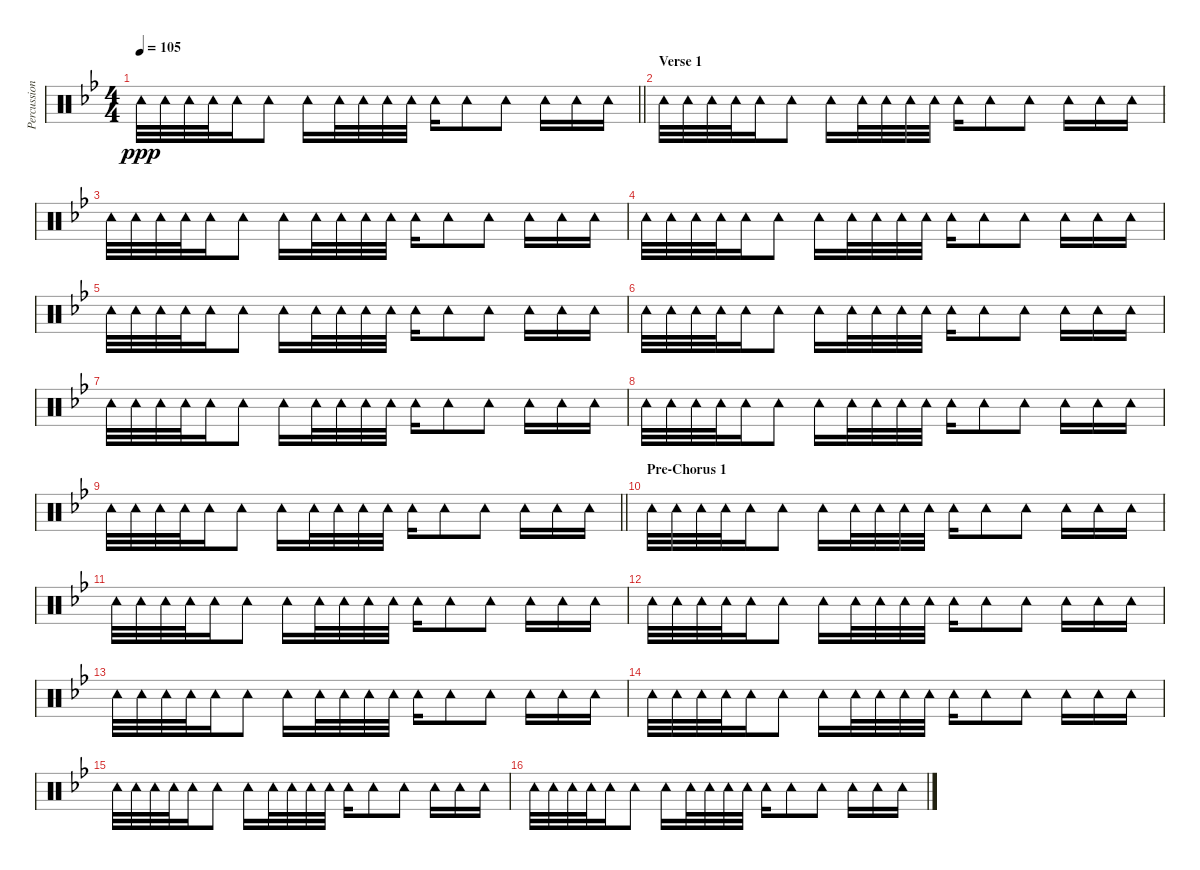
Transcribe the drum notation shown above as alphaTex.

\track ("Percussion" "Percussion") {instrument percussion}
\staff {score}
\articulation defaults
\ts (4 4)
\tempo 105
\clef neutral
\barLineRight lightlight
\ks bb "Tambourine (hit)".32{dy ppp} "Tambourine (hit)".32 "Tambourine (hit)".32 "Tambourine (hit)".32 "Tambourine (hit)".16 "Tambourine (hit)".8 "Tambourine (hit)".16 "Tambourine (hit)".32 "Tambourine (hit)".32 "Tambourine (hit)".32 "Tambourine (hit)".32 "Tambourine (hit)".16 "Tambourine (hit)".8 "Tambourine (hit)".8 "Tambourine (hit)".16 "Tambourine (hit)".16 "Tambourine (hit)".16
|
\section ("" "Verse 1")
"Tambourine (hit)".32 "Tambourine (hit)".32 "Tambourine (hit)".32 "Tambourine (hit)".32 "Tambourine (hit)".16 "Tambourine (hit)".8 "Tambourine (hit)".16 "Tambourine (hit)".32 "Tambourine (hit)".32 "Tambourine (hit)".32 "Tambourine (hit)".32 "Tambourine (hit)".16 "Tambourine (hit)".8 "Tambourine (hit)".8 "Tambourine (hit)".16 "Tambourine (hit)".16 "Tambourine (hit)".16 |
"Tambourine (hit)".32 "Tambourine (hit)".32 "Tambourine (hit)".32 "Tambourine (hit)".32 "Tambourine (hit)".16 "Tambourine (hit)".8 "Tambourine (hit)".16 "Tambourine (hit)".32 "Tambourine (hit)".32 "Tambourine (hit)".32 "Tambourine (hit)".32 "Tambourine (hit)".16 "Tambourine (hit)".8 "Tambourine (hit)".8 "Tambourine (hit)".16 "Tambourine (hit)".16 "Tambourine (hit)".16 |
"Tambourine (hit)".32 "Tambourine (hit)".32 "Tambourine (hit)".32 "Tambourine (hit)".32 "Tambourine (hit)".16 "Tambourine (hit)".8 "Tambourine (hit)".16 "Tambourine (hit)".32 "Tambourine (hit)".32 "Tambourine (hit)".32 "Tambourine (hit)".32 "Tambourine (hit)".16 "Tambourine (hit)".8 "Tambourine (hit)".8 "Tambourine (hit)".16 "Tambourine (hit)".16 "Tambourine (hit)".16 |
"Tambourine (hit)".32 "Tambourine (hit)".32 "Tambourine (hit)".32 "Tambourine (hit)".32 "Tambourine (hit)".16 "Tambourine (hit)".8 "Tambourine (hit)".16 "Tambourine (hit)".32 "Tambourine (hit)".32 "Tambourine (hit)".32 "Tambourine (hit)".32 "Tambourine (hit)".16 "Tambourine (hit)".8 "Tambourine (hit)".8 "Tambourine (hit)".16 "Tambourine (hit)".16 "Tambourine (hit)".16 |
"Tambourine (hit)".32 "Tambourine (hit)".32 "Tambourine (hit)".32 "Tambourine (hit)".32 "Tambourine (hit)".16 "Tambourine (hit)".8 "Tambourine (hit)".16 "Tambourine (hit)".32 "Tambourine (hit)".32 "Tambourine (hit)".32 "Tambourine (hit)".32 "Tambourine (hit)".16 "Tambourine (hit)".8 "Tambourine (hit)".8 "Tambourine (hit)".16 "Tambourine (hit)".16 "Tambourine (hit)".16 |
"Tambourine (hit)".32 "Tambourine (hit)".32 "Tambourine (hit)".32 "Tambourine (hit)".32 "Tambourine (hit)".16 "Tambourine (hit)".8 "Tambourine (hit)".16 "Tambourine (hit)".32 "Tambourine (hit)".32 "Tambourine (hit)".32 "Tambourine (hit)".32 "Tambourine (hit)".16 "Tambourine (hit)".8 "Tambourine (hit)".8 "Tambourine (hit)".16 "Tambourine (hit)".16 "Tambourine (hit)".16 |
"Tambourine (hit)".32 "Tambourine (hit)".32 "Tambourine (hit)".32 "Tambourine (hit)".32 "Tambourine (hit)".16 "Tambourine (hit)".8 "Tambourine (hit)".16 "Tambourine (hit)".32 "Tambourine (hit)".32 "Tambourine (hit)".32 "Tambourine (hit)".32 "Tambourine (hit)".16 "Tambourine (hit)".8 "Tambourine (hit)".8 "Tambourine (hit)".16 "Tambourine (hit)".16 "Tambourine (hit)".16 |
\barLineRight lightlight "Tambourine (hit)".32 "Tambourine (hit)".32 "Tambourine (hit)".32 "Tambourine (hit)".32 "Tambourine (hit)".16 "Tambourine (hit)".8 "Tambourine (hit)".16 "Tambourine (hit)".32 "Tambourine (hit)".32 "Tambourine (hit)".32 "Tambourine (hit)".32 "Tambourine (hit)".16 "Tambourine (hit)".8 "Tambourine (hit)".8 "Tambourine (hit)".16 "Tambourine (hit)".16 "Tambourine (hit)".16
|
\section ("" "Pre-Chorus 1")
"Tambourine (hit)".32 "Tambourine (hit)".32 "Tambourine (hit)".32 "Tambourine (hit)".32 "Tambourine (hit)".16 "Tambourine (hit)".8 "Tambourine (hit)".16 "Tambourine (hit)".32 "Tambourine (hit)".32 "Tambourine (hit)".32 "Tambourine (hit)".32 "Tambourine (hit)".16 "Tambourine (hit)".8 "Tambourine (hit)".8 "Tambourine (hit)".16 "Tambourine (hit)".16 "Tambourine (hit)".16 |
"Tambourine (hit)".32 "Tambourine (hit)".32 "Tambourine (hit)".32 "Tambourine (hit)".32 "Tambourine (hit)".16 "Tambourine (hit)".8 "Tambourine (hit)".16 "Tambourine (hit)".32 "Tambourine (hit)".32 "Tambourine (hit)".32 "Tambourine (hit)".32 "Tambourine (hit)".16 "Tambourine (hit)".8 "Tambourine (hit)".8 "Tambourine (hit)".16 "Tambourine (hit)".16 "Tambourine (hit)".16 |
"Tambourine (hit)".32 "Tambourine (hit)".32 "Tambourine (hit)".32 "Tambourine (hit)".32 "Tambourine (hit)".16 "Tambourine (hit)".8 "Tambourine (hit)".16 "Tambourine (hit)".32 "Tambourine (hit)".32 "Tambourine (hit)".32 "Tambourine (hit)".32 "Tambourine (hit)".16 "Tambourine (hit)".8 "Tambourine (hit)".8 "Tambourine (hit)".16 "Tambourine (hit)".16 "Tambourine (hit)".16 |
"Tambourine (hit)".32 "Tambourine (hit)".32 "Tambourine (hit)".32 "Tambourine (hit)".32 "Tambourine (hit)".16 "Tambourine (hit)".8 "Tambourine (hit)".16 "Tambourine (hit)".32 "Tambourine (hit)".32 "Tambourine (hit)".32 "Tambourine (hit)".32 "Tambourine (hit)".16 "Tambourine (hit)".8 "Tambourine (hit)".8 "Tambourine (hit)".16 "Tambourine (hit)".16 "Tambourine (hit)".16 |
"Tambourine (hit)".32 "Tambourine (hit)".32 "Tambourine (hit)".32 "Tambourine (hit)".32 "Tambourine (hit)".16 "Tambourine (hit)".8 "Tambourine (hit)".16 "Tambourine (hit)".32 "Tambourine (hit)".32 "Tambourine (hit)".32 "Tambourine (hit)".32 "Tambourine (hit)".16 "Tambourine (hit)".8 "Tambourine (hit)".8 "Tambourine (hit)".16 "Tambourine (hit)".16 "Tambourine (hit)".16 |
"Tambourine (hit)".32 "Tambourine (hit)".32 "Tambourine (hit)".32 "Tambourine (hit)".32 "Tambourine (hit)".16 "Tambourine (hit)".8 "Tambourine (hit)".16 "Tambourine (hit)".32 "Tambourine (hit)".32 "Tambourine (hit)".32 "Tambourine (hit)".32 "Tambourine (hit)".16 "Tambourine (hit)".8 "Tambourine (hit)".8 "Tambourine (hit)".16 "Tambourine (hit)".16 "Tambourine (hit)".16 |
"Tambourine (hit)".32 "Tambourine (hit)".32 "Tambourine (hit)".32 "Tambourine (hit)".32 "Tambourine (hit)".16 "Tambourine (hit)".8 "Tambourine (hit)".16 "Tambourine (hit)".32 "Tambourine (hit)".32 "Tambourine (hit)".32 "Tambourine (hit)".32 "Tambourine (hit)".16 "Tambourine (hit)".8 "Tambourine (hit)".8 "Tambourine (hit)".16 "Tambourine (hit)".16 "Tambourine (hit)".16
